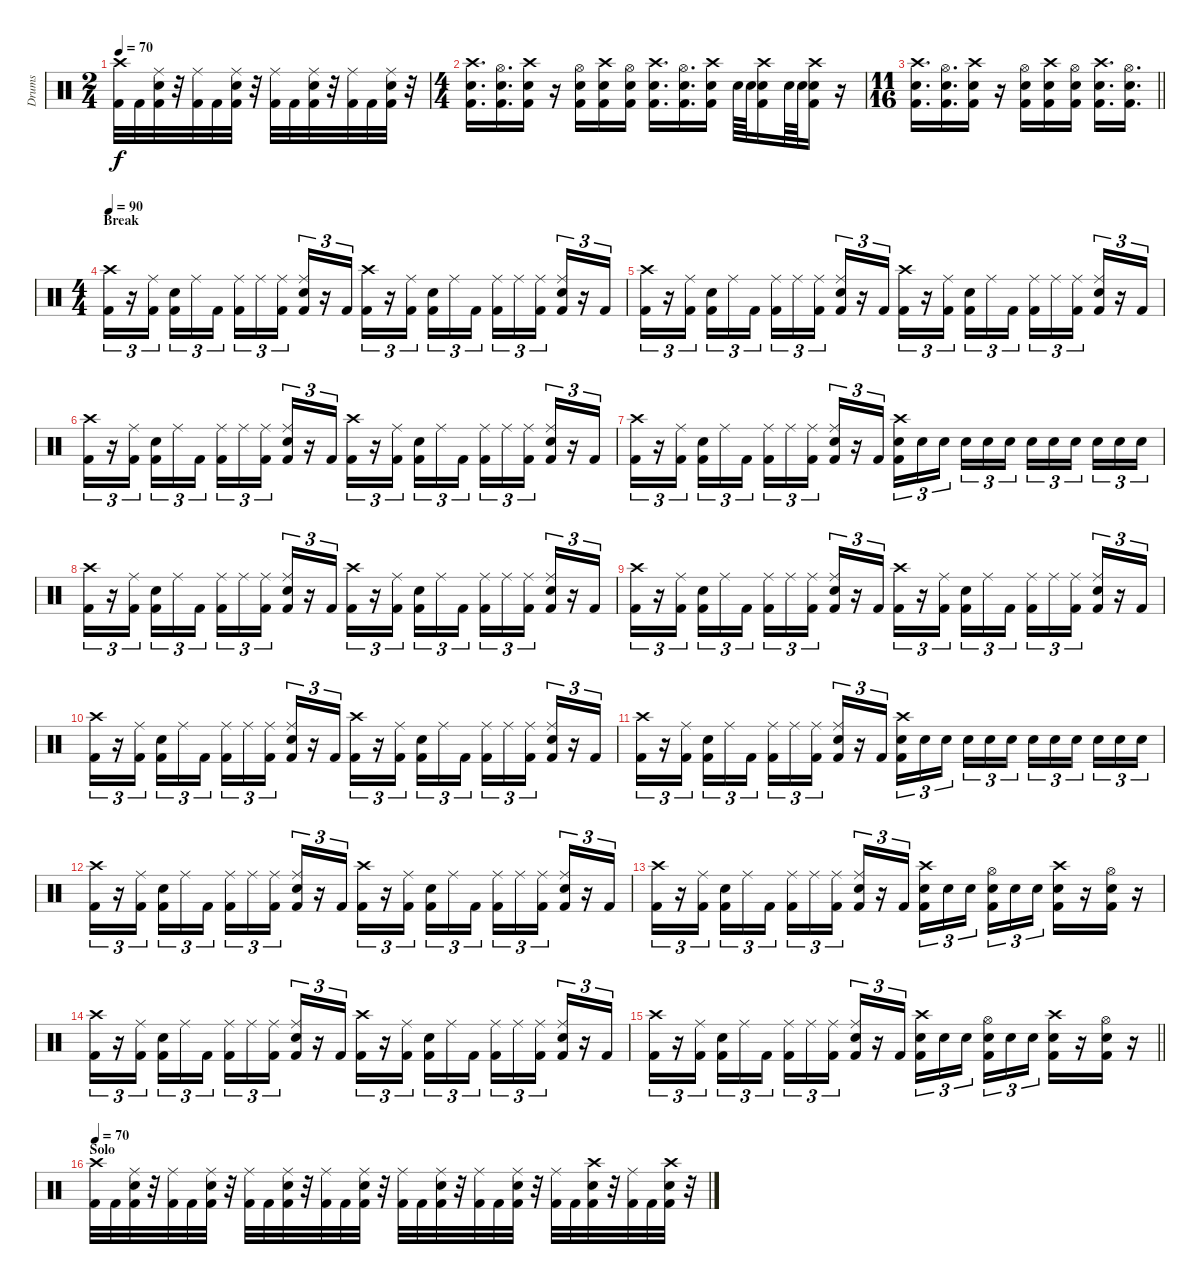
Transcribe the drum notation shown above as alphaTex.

\track ("Drums" "Drums") {instrument percussion}
\staff {score}
\articulation defaults
\ts (2 4)
\tempo 70
\clef neutral
\ks c
("Crash high (hit)" "Kick (hit) 2").32{dy f} "Kick (hit) 2".32 ("Ride (middle)" "Snare (hit) 2" "Kick (hit) 2").32 r.32 ("Ride (middle)" "Kick (hit) 2").32 "Kick (hit) 2".32 ("Ride (middle)" "Snare (hit) 2" "Kick (hit) 2").32 r.32 ("Ride (middle)" "Kick (hit) 2").32 "Kick (hit) 2".32 ("Ride (middle)" "Snare (hit) 2" "Kick (hit) 2").32 r.32 ("Ride (middle)" "Kick (hit) 2").32 "Kick (hit) 2".32 ("Ride (middle)" "Snare (hit) 2" "Kick (hit) 2").32 r.32 |
\ts (4 4)
("Crash high (hit)" "Snare (hit) 2" "Kick (hit) 2").16{d} ("Hi-Hat (open)" "Snare (hit) 2" "Kick (hit) 2").16{d} ("Crash high (hit)" "Snare (hit) 2" "Kick (hit) 2").16 r.16 ("Hi-Hat (open)" "Snare (hit) 2" "Kick (hit) 2").16 ("Crash high (hit)" "Snare (hit) 2" "Kick (hit) 2").16 ("Hi-Hat (open)" "Snare (hit) 2" "Kick (hit) 2").16 ("Crash high (hit)" "Snare (hit) 2" "Kick (hit) 2").16{d} ("Hi-Hat (open)" "Snare (hit) 2" "Kick (hit) 2").16{d} ("Crash high (hit)" "Snare (hit) 2" "Kick (hit) 2").16 "Snare (hit) 2".64 "Snare (hit) 2".64 ("Crash high (hit)" "Snare (hit) 2" "Kick (hit) 2").16 "Snare (hit) 2".64 "Snare (hit) 2".64 ("Crash high (hit)" "Snare (hit) 2" "Kick (hit) 2").16 r.16 |
\ts (11 16)
\barLineRight lightlight
("Crash high (hit)" "Snare (hit) 2" "Kick (hit) 2").16{d} ("Hi-Hat (open)" "Snare (hit) 2" "Kick (hit) 2").16{d} ("Crash high (hit)" "Snare (hit) 2" "Kick (hit) 2").16 r.16 ("Hi-Hat (open)" "Snare (hit) 2" "Kick (hit) 2").16 ("Crash high (hit)" "Snare (hit) 2" "Kick (hit) 2").16 ("Hi-Hat (open)" "Snare (hit) 2" "Kick (hit) 2").16 ("Crash high (hit)" "Snare (hit) 2" "Kick (hit) 2").16{d} ("Hi-Hat (open)" "Snare (hit) 2" "Kick (hit) 2").16{d} |
\ts (4 4)
\section ("" "Break")
\tempo 90
("Crash high (hit)" "Kick (hit) 2").16{tu (3 2)} r.16{tu (3 2)} ("Ride (middle)" "Kick (hit) 2").16{tu (3 2) beam splitsecondary} ("Snare (hit) 2" "Kick (hit) 2").16{tu (3 2)} "Ride (middle)".16{tu (3 2)} "Kick (hit) 2".16{tu (3 2)} ("Ride (middle)" "Kick (hit) 2").16{tu (3 2)} "Ride (middle)".16{tu (3 2)} ("Ride (middle)" "Kick (hit) 2").16{tu (3 2) beam splitsecondary} ("Ride (middle)" "Snare (hit) 2" "Kick (hit) 2").16{tu (3 2)} r.16{tu (3 2)} "Kick (hit) 2".16{tu (3 2)} ("Crash high (hit)" "Kick (hit) 2").16{tu (3 2)} r.16{tu (3 2)} ("Ride (middle)" "Kick (hit) 2").16{tu (3 2) beam splitsecondary} ("Snare (hit) 2" "Kick (hit) 2").16{tu (3 2)} "Ride (middle)".16{tu (3 2)} "Kick (hit) 2".16{tu (3 2)} ("Ride (middle)" "Kick (hit) 2").16{tu (3 2)} "Ride (middle)".16{tu (3 2)} ("Ride (middle)" "Kick (hit) 2").16{tu (3 2) beam splitsecondary} ("Ride (middle)" "Snare (hit) 2" "Kick (hit) 2").16{tu (3 2)} r.16{tu (3 2)} "Kick (hit) 2".16{tu (3 2)} |
("Crash high (hit)" "Kick (hit) 2").16{tu (3 2)} r.16{tu (3 2)} ("Ride (middle)" "Kick (hit) 2").16{tu (3 2) beam splitsecondary} ("Snare (hit) 2" "Kick (hit) 2").16{tu (3 2)} "Ride (middle)".16{tu (3 2)} "Kick (hit) 2".16{tu (3 2)} ("Ride (middle)" "Kick (hit) 2").16{tu (3 2)} "Ride (middle)".16{tu (3 2)} ("Ride (middle)" "Kick (hit) 2").16{tu (3 2) beam splitsecondary} ("Ride (middle)" "Snare (hit) 2" "Kick (hit) 2").16{tu (3 2)} r.16{tu (3 2)} "Kick (hit) 2".16{tu (3 2)} ("Crash high (hit)" "Kick (hit) 2").16{tu (3 2)} r.16{tu (3 2)} ("Ride (middle)" "Kick (hit) 2").16{tu (3 2) beam splitsecondary} ("Snare (hit) 2" "Kick (hit) 2").16{tu (3 2)} "Ride (middle)".16{tu (3 2)} "Kick (hit) 2".16{tu (3 2)} ("Ride (middle)" "Kick (hit) 2").16{tu (3 2)} "Ride (middle)".16{tu (3 2)} ("Ride (middle)" "Kick (hit) 2").16{tu (3 2) beam splitsecondary} ("Ride (middle)" "Snare (hit) 2" "Kick (hit) 2").16{tu (3 2)} r.16{tu (3 2)} "Kick (hit) 2".16{tu (3 2)} |
("Crash high (hit)" "Kick (hit) 2").16{tu (3 2)} r.16{tu (3 2)} ("Ride (middle)" "Kick (hit) 2").16{tu (3 2) beam splitsecondary} ("Snare (hit) 2" "Kick (hit) 2").16{tu (3 2)} "Ride (middle)".16{tu (3 2)} "Kick (hit) 2".16{tu (3 2)} ("Ride (middle)" "Kick (hit) 2").16{tu (3 2)} "Ride (middle)".16{tu (3 2)} ("Ride (middle)" "Kick (hit) 2").16{tu (3 2) beam splitsecondary} ("Ride (middle)" "Snare (hit) 2" "Kick (hit) 2").16{tu (3 2)} r.16{tu (3 2)} "Kick (hit) 2".16{tu (3 2)} ("Crash high (hit)" "Kick (hit) 2").16{tu (3 2)} r.16{tu (3 2)} ("Ride (middle)" "Kick (hit) 2").16{tu (3 2) beam splitsecondary} ("Snare (hit) 2" "Kick (hit) 2").16{tu (3 2)} "Ride (middle)".16{tu (3 2)} "Kick (hit) 2".16{tu (3 2)} ("Ride (middle)" "Kick (hit) 2").16{tu (3 2)} "Ride (middle)".16{tu (3 2)} ("Ride (middle)" "Kick (hit) 2").16{tu (3 2) beam splitsecondary} ("Ride (middle)" "Snare (hit) 2" "Kick (hit) 2").16{tu (3 2)} r.16{tu (3 2)} "Kick (hit) 2".16{tu (3 2)} |
("Crash high (hit)" "Kick (hit) 2").16{tu (3 2)} r.16{tu (3 2)} ("Ride (middle)" "Kick (hit) 2").16{tu (3 2) beam splitsecondary} ("Snare (hit) 2" "Kick (hit) 2").16{tu (3 2)} "Ride (middle)".16{tu (3 2)} "Kick (hit) 2".16{tu (3 2)} ("Ride (middle)" "Kick (hit) 2").16{tu (3 2)} "Ride (middle)".16{tu (3 2)} ("Ride (middle)" "Kick (hit) 2").16{tu (3 2) beam splitsecondary} ("Ride (middle)" "Snare (hit) 2" "Kick (hit) 2").16{tu (3 2)} r.16{tu (3 2)} "Kick (hit) 2".16{tu (3 2)} ("Crash high (hit)" "Snare (hit) 2" "Kick (hit) 2").16{tu (3 2)} "Snare (hit) 2".16{tu (3 2)} "Snare (hit) 2".16{tu (3 2) beam splitsecondary} "Snare (hit) 2".16{tu (3 2)} "Snare (hit) 2".16{tu (3 2)} "Snare (hit) 2".16{tu (3 2)} "Snare (hit) 2".16{tu (3 2)} "Snare (hit) 2".16{tu (3 2)} "Snare (hit) 2".16{tu (3 2) beam splitsecondary} "Snare (hit) 2".16{tu (3 2)} "Snare (hit) 2".16{tu (3 2)} "Snare (hit) 2".16{tu (3 2)} |
("Crash high (hit)" "Kick (hit) 2").16{tu (3 2)} r.16{tu (3 2)} ("Ride (middle)" "Kick (hit) 2").16{tu (3 2) beam splitsecondary} ("Snare (hit) 2" "Kick (hit) 2").16{tu (3 2)} "Ride (middle)".16{tu (3 2)} "Kick (hit) 2".16{tu (3 2)} ("Ride (middle)" "Kick (hit) 2").16{tu (3 2)} "Ride (middle)".16{tu (3 2)} ("Ride (middle)" "Kick (hit) 2").16{tu (3 2) beam splitsecondary} ("Ride (middle)" "Snare (hit) 2" "Kick (hit) 2").16{tu (3 2)} r.16{tu (3 2)} "Kick (hit) 2".16{tu (3 2)} ("Crash high (hit)" "Kick (hit) 2").16{tu (3 2)} r.16{tu (3 2)} ("Ride (middle)" "Kick (hit) 2").16{tu (3 2) beam splitsecondary} ("Snare (hit) 2" "Kick (hit) 2").16{tu (3 2)} "Ride (middle)".16{tu (3 2)} "Kick (hit) 2".16{tu (3 2)} ("Ride (middle)" "Kick (hit) 2").16{tu (3 2)} "Ride (middle)".16{tu (3 2)} ("Ride (middle)" "Kick (hit) 2").16{tu (3 2) beam splitsecondary} ("Ride (middle)" "Snare (hit) 2" "Kick (hit) 2").16{tu (3 2)} r.16{tu (3 2)} "Kick (hit) 2".16{tu (3 2)} |
("Crash high (hit)" "Kick (hit) 2").16{tu (3 2)} r.16{tu (3 2)} ("Ride (middle)" "Kick (hit) 2").16{tu (3 2) beam splitsecondary} ("Snare (hit) 2" "Kick (hit) 2").16{tu (3 2)} "Ride (middle)".16{tu (3 2)} "Kick (hit) 2".16{tu (3 2)} ("Ride (middle)" "Kick (hit) 2").16{tu (3 2)} "Ride (middle)".16{tu (3 2)} ("Ride (middle)" "Kick (hit) 2").16{tu (3 2) beam splitsecondary} ("Ride (middle)" "Snare (hit) 2" "Kick (hit) 2").16{tu (3 2)} r.16{tu (3 2)} "Kick (hit) 2".16{tu (3 2)} ("Crash high (hit)" "Kick (hit) 2").16{tu (3 2)} r.16{tu (3 2)} ("Ride (middle)" "Kick (hit) 2").16{tu (3 2) beam splitsecondary} ("Snare (hit) 2" "Kick (hit) 2").16{tu (3 2)} "Ride (middle)".16{tu (3 2)} "Kick (hit) 2".16{tu (3 2)} ("Ride (middle)" "Kick (hit) 2").16{tu (3 2)} "Ride (middle)".16{tu (3 2)} ("Ride (middle)" "Kick (hit) 2").16{tu (3 2) beam splitsecondary} ("Ride (middle)" "Snare (hit) 2" "Kick (hit) 2").16{tu (3 2)} r.16{tu (3 2)} "Kick (hit) 2".16{tu (3 2)} |
("Crash high (hit)" "Kick (hit) 2").16{tu (3 2)} r.16{tu (3 2)} ("Ride (middle)" "Kick (hit) 2").16{tu (3 2) beam splitsecondary} ("Snare (hit) 2" "Kick (hit) 2").16{tu (3 2)} "Ride (middle)".16{tu (3 2)} "Kick (hit) 2".16{tu (3 2)} ("Ride (middle)" "Kick (hit) 2").16{tu (3 2)} "Ride (middle)".16{tu (3 2)} ("Ride (middle)" "Kick (hit) 2").16{tu (3 2) beam splitsecondary} ("Ride (middle)" "Snare (hit) 2" "Kick (hit) 2").16{tu (3 2)} r.16{tu (3 2)} "Kick (hit) 2".16{tu (3 2)} ("Crash high (hit)" "Kick (hit) 2").16{tu (3 2)} r.16{tu (3 2)} ("Ride (middle)" "Kick (hit) 2").16{tu (3 2) beam splitsecondary} ("Snare (hit) 2" "Kick (hit) 2").16{tu (3 2)} "Ride (middle)".16{tu (3 2)} "Kick (hit) 2".16{tu (3 2)} ("Ride (middle)" "Kick (hit) 2").16{tu (3 2)} "Ride (middle)".16{tu (3 2)} ("Ride (middle)" "Kick (hit) 2").16{tu (3 2) beam splitsecondary} ("Ride (middle)" "Snare (hit) 2" "Kick (hit) 2").16{tu (3 2)} r.16{tu (3 2)} "Kick (hit) 2".16{tu (3 2)} |
("Crash high (hit)" "Kick (hit) 2").16{tu (3 2)} r.16{tu (3 2)} ("Ride (middle)" "Kick (hit) 2").16{tu (3 2) beam splitsecondary} ("Snare (hit) 2" "Kick (hit) 2").16{tu (3 2)} "Ride (middle)".16{tu (3 2)} "Kick (hit) 2".16{tu (3 2)} ("Ride (middle)" "Kick (hit) 2").16{tu (3 2)} "Ride (middle)".16{tu (3 2)} ("Ride (middle)" "Kick (hit) 2").16{tu (3 2) beam splitsecondary} ("Ride (middle)" "Snare (hit) 2" "Kick (hit) 2").16{tu (3 2)} r.16{tu (3 2)} "Kick (hit) 2".16{tu (3 2)} ("Crash high (hit)" "Snare (hit) 2" "Kick (hit) 2").16{tu (3 2)} "Snare (hit) 2".16{tu (3 2)} "Snare (hit) 2".16{tu (3 2) beam splitsecondary} "Snare (hit) 2".16{tu (3 2)} "Snare (hit) 2".16{tu (3 2)} "Snare (hit) 2".16{tu (3 2)} "Snare (hit) 2".16{tu (3 2)} "Snare (hit) 2".16{tu (3 2)} "Snare (hit) 2".16{tu (3 2) beam splitsecondary} "Snare (hit) 2".16{tu (3 2)} "Snare (hit) 2".16{tu (3 2)} "Snare (hit) 2".16{tu (3 2)} |
("Crash high (hit)" "Kick (hit) 2").16{tu (3 2)} r.16{tu (3 2)} ("Ride (middle)" "Kick (hit) 2").16{tu (3 2) beam splitsecondary} ("Snare (hit) 2" "Kick (hit) 2").16{tu (3 2)} "Ride (middle)".16{tu (3 2)} "Kick (hit) 2".16{tu (3 2)} ("Ride (middle)" "Kick (hit) 2").16{tu (3 2)} "Ride (middle)".16{tu (3 2)} ("Ride (middle)" "Kick (hit) 2").16{tu (3 2) beam splitsecondary} ("Ride (middle)" "Snare (hit) 2" "Kick (hit) 2").16{tu (3 2)} r.16{tu (3 2)} "Kick (hit) 2".16{tu (3 2)} ("Crash high (hit)" "Kick (hit) 2").16{tu (3 2)} r.16{tu (3 2)} ("Ride (middle)" "Kick (hit) 2").16{tu (3 2) beam splitsecondary} ("Snare (hit) 2" "Kick (hit) 2").16{tu (3 2)} "Ride (middle)".16{tu (3 2)} "Kick (hit) 2".16{tu (3 2)} ("Ride (middle)" "Kick (hit) 2").16{tu (3 2)} "Ride (middle)".16{tu (3 2)} ("Ride (middle)" "Kick (hit) 2").16{tu (3 2) beam splitsecondary} ("Ride (middle)" "Snare (hit) 2" "Kick (hit) 2").16{tu (3 2)} r.16{tu (3 2)} "Kick (hit) 2".16{tu (3 2)} |
("Crash high (hit)" "Kick (hit) 2").16{tu (3 2)} r.16{tu (3 2)} ("Ride (middle)" "Kick (hit) 2").16{tu (3 2) beam splitsecondary} ("Snare (hit) 2" "Kick (hit) 2").16{tu (3 2)} "Ride (middle)".16{tu (3 2)} "Kick (hit) 2".16{tu (3 2)} ("Ride (middle)" "Kick (hit) 2").16{tu (3 2)} "Ride (middle)".16{tu (3 2)} ("Ride (middle)" "Kick (hit) 2").16{tu (3 2) beam splitsecondary} ("Ride (middle)" "Snare (hit) 2" "Kick (hit) 2").16{tu (3 2)} r.16{tu (3 2)} "Kick (hit) 2".16{tu (3 2)} ("Crash high (hit)" "Snare (hit) 2" "Kick (hit) 2").16{tu (3 2)} "Snare (hit) 2".16{tu (3 2)} "Snare (hit) 2".16{tu (3 2) beam splitsecondary} ("Hi-Hat (open)" "Snare (hit) 2" "Kick (hit) 2").16{tu (3 2)} "Snare (hit) 2".16{tu (3 2)} "Snare (hit) 2".16{tu (3 2)} ("Crash high (hit)" "Snare (hit) 2" "Kick (hit) 2").16 r.16 ("Hi-Hat (open)" "Snare (hit) 2" "Kick (hit) 2").16 r.16 |
("Crash high (hit)" "Kick (hit) 2").16{tu (3 2)} r.16{tu (3 2)} ("Ride (middle)" "Kick (hit) 2").16{tu (3 2) beam splitsecondary} ("Snare (hit) 2" "Kick (hit) 2").16{tu (3 2)} "Ride (middle)".16{tu (3 2)} "Kick (hit) 2".16{tu (3 2)} ("Ride (middle)" "Kick (hit) 2").16{tu (3 2)} "Ride (middle)".16{tu (3 2)} ("Ride (middle)" "Kick (hit) 2").16{tu (3 2) beam splitsecondary} ("Ride (middle)" "Snare (hit) 2" "Kick (hit) 2").16{tu (3 2)} r.16{tu (3 2)} "Kick (hit) 2".16{tu (3 2)} ("Crash high (hit)" "Kick (hit) 2").16{tu (3 2)} r.16{tu (3 2)} ("Ride (middle)" "Kick (hit) 2").16{tu (3 2) beam splitsecondary} ("Snare (hit) 2" "Kick (hit) 2").16{tu (3 2)} "Ride (middle)".16{tu (3 2)} "Kick (hit) 2".16{tu (3 2)} ("Ride (middle)" "Kick (hit) 2").16{tu (3 2)} "Ride (middle)".16{tu (3 2)} ("Ride (middle)" "Kick (hit) 2").16{tu (3 2) beam splitsecondary} ("Ride (middle)" "Snare (hit) 2" "Kick (hit) 2").16{tu (3 2)} r.16{tu (3 2)} "Kick (hit) 2".16{tu (3 2)} |
\barLineRight lightlight
("Crash high (hit)" "Kick (hit) 2").16{tu (3 2)} r.16{tu (3 2)} ("Ride (middle)" "Kick (hit) 2").16{tu (3 2) beam splitsecondary} ("Snare (hit) 2" "Kick (hit) 2").16{tu (3 2)} "Ride (middle)".16{tu (3 2)} "Kick (hit) 2".16{tu (3 2)} ("Ride (middle)" "Kick (hit) 2").16{tu (3 2)} "Ride (middle)".16{tu (3 2)} ("Ride (middle)" "Kick (hit) 2").16{tu (3 2) beam splitsecondary} ("Ride (middle)" "Snare (hit) 2" "Kick (hit) 2").16{tu (3 2)} r.16{tu (3 2)} "Kick (hit) 2".16{tu (3 2)} ("Crash high (hit)" "Snare (hit) 2" "Kick (hit) 2").16{tu (3 2)} "Snare (hit) 2".16{tu (3 2)} "Snare (hit) 2".16{tu (3 2) beam splitsecondary} ("Hi-Hat (open)" "Snare (hit) 2" "Kick (hit) 2").16{tu (3 2)} "Snare (hit) 2".16{tu (3 2)} "Snare (hit) 2".16{tu (3 2)} ("Crash high (hit)" "Snare (hit) 2" "Kick (hit) 2").16 r.16 ("Hi-Hat (open)" "Snare (hit) 2" "Kick (hit) 2").16 r.16 |
\section ("" "Solo")
\tempo 70
("Crash high (hit)" "Kick (hit) 2").32 "Kick (hit) 2".32 ("Ride (middle)" "Snare (hit) 2" "Kick (hit) 2").32 r.32 ("Ride (middle)" "Kick (hit) 2").32 "Kick (hit) 2".32 ("Ride (middle)" "Snare (hit) 2" "Kick (hit) 2").32 r.32 ("Ride (middle)" "Kick (hit) 2").32 "Kick (hit) 2".32 ("Ride (middle)" "Snare (hit) 2" "Kick (hit) 2").32 r.32 ("Ride (middle)" "Kick (hit) 2").32 "Kick (hit) 2".32 ("Ride (middle)" "Snare (hit) 2" "Kick (hit) 2").32 r.32 ("Ride (middle)" "Kick (hit) 2").32 "Kick (hit) 2".32 ("Ride (middle)" "Snare (hit) 2" "Kick (hit) 2").32 r.32 ("Ride (middle)" "Kick (hit) 2").32 "Kick (hit) 2".32 ("Ride (middle)" "Snare (hit) 2" "Kick (hit) 2").32 r.32 ("Ride (middle)" "Kick (hit) 2").32 "Kick (hit) 2".32 ("Crash high (hit)" "Snare (hit) 2" "Kick (hit) 2").32 r.32 ("Ride (middle)" "Kick (hit) 2").32 "Kick (hit) 2".32 ("Crash high (hit)" "Snare (hit) 2" "Kick (hit) 2").32 r.32
